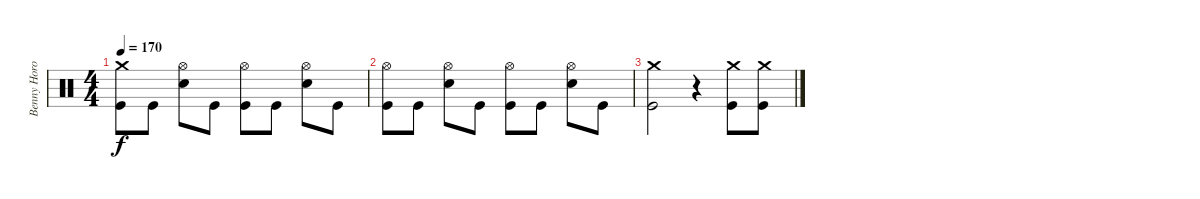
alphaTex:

\track ("Benny Horowitz" "Benny Horo") {instrument percussion}
\staff {score}
\articulation defaults
\ts (4 4)
\tempo 170
\clef neutral
\ks c
("Kick (hit)" "Crash medium (hit)").8{dy f} "Kick (hit)".8 ("Snare (hit) 2" "Hi-Hat (open)").8 "Kick (hit)".8 ("Kick (hit)" "Hi-Hat (open)").8 "Kick (hit)".8 ("Snare (hit) 2" "Hi-Hat (open)").8 "Kick (hit)".8 |
("Kick (hit)" "Hi-Hat (open)").8 "Kick (hit)".8 ("Snare (hit) 2" "Hi-Hat (open)").8 "Kick (hit)".8 ("Kick (hit)" "Hi-Hat (open)").8 "Kick (hit)".8 ("Snare (hit) 2" "Hi-Hat (open)").8 "Kick (hit)".8 |
("Kick (hit)" "Crash medium (hit)").2 r.4 ("Kick (hit)" "Crash medium (hit)").8 ("Kick (hit)" "Crash medium (hit)").8
